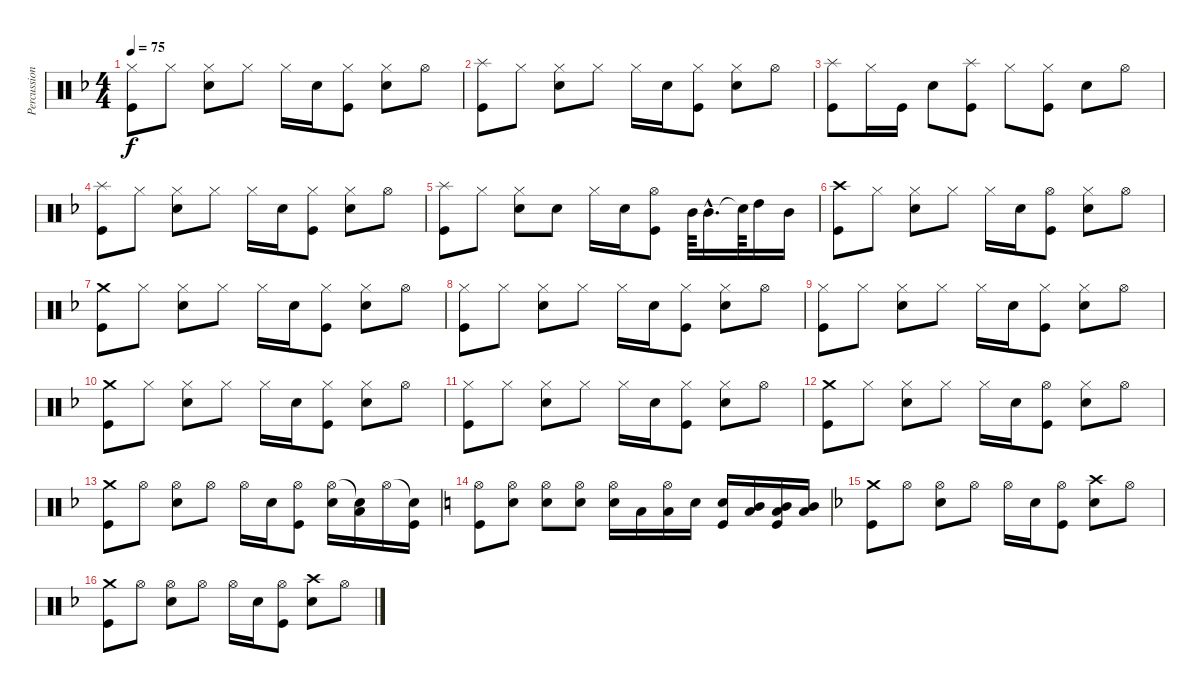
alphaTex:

\track ("Percussion" "Percussion") {instrument percussion}
\staff {score}
\articulation defaults
\ts (4 4)
\tempo 75
\clef neutral
\ks f
("Hi-Hat (closed)" "Kick (hit)").8{dy f} "Hi-Hat (closed)".8 ("Hi-Hat (closed)" "Electric Snare (hit)").8 "Hi-Hat (closed)".8 "Hi-Hat (closed)".16 "Electric Snare (hit)".16 ("Hi-Hat (closed)" "Kick (hit)").8 ("Hi-Hat (closed)" "Electric Snare (hit)").8 "Hi-Hat (open)".8 |
("Splash (hit)" "Kick (hit)").8 "Hi-Hat (closed)".8 ("Hi-Hat (closed)" "Electric Snare (hit)").8 "Hi-Hat (closed)".8 "Hi-Hat (closed)".16 "Electric Snare (hit)".16 ("Hi-Hat (closed)" "Kick (hit)").8 ("Hi-Hat (closed)" "Electric Snare (hit)").8 "Hi-Hat (open)".8 |
("Splash (hit)" "Kick (hit)").8 "Hi-Hat (closed)".16 "Kick (hit)".16 "Electric Snare (hit)".8 ("Splash (hit)" "Kick (hit)").8 "Hi-Hat (closed)".8 ("Hi-Hat (closed)" "Kick (hit)").8 "Electric Snare (hit)".8 "Hi-Hat (open)".8 |
("Splash (hit)" "Kick (hit)").8 "Hi-Hat (closed)".8 ("Hi-Hat (closed)" "Electric Snare (hit)").8 "Hi-Hat (closed)".8 "Hi-Hat (closed)".16 "Electric Snare (hit)".16 ("Hi-Hat (closed)" "Kick (hit)").8 ("Hi-Hat (closed)" "Electric Snare (hit)").8 "Hi-Hat (open)".8 |
("Splash (hit)" "Kick (hit)").8 "Hi-Hat (closed)".8 ("Hi-Hat (closed)" "Electric Snare (hit)").8 "Electric Snare (hit)".8 "Hi-Hat (closed)".16 "Electric Snare (hit)".16 ("Hi-Hat (open)" "Kick (hit)").8 "Mid Tom (hit)".64 "Mid Tom (hit)"{hac}.16{d} "Snare (hit)"{t}.64 "High Tom (hit)".16 "Mid Tom (hit)".16 |
("Crash high (hit)" "Kick (hit)").8 "Hi-Hat (closed)".8 ("Hi-Hat (closed)" "Electric Snare (hit)").8 "Hi-Hat (closed)".8 "Hi-Hat (closed)".16 "Electric Snare (hit)".16 ("Hi-Hat (open)" "Kick (hit)").8 ("Hi-Hat (closed)" "Electric Snare (hit)").8 "Hi-Hat (open)".8 |
("Crash medium (hit)" "Kick (hit)").8 "Hi-Hat (closed)".8 ("Hi-Hat (closed)" "Electric Snare (hit)").8 "Hi-Hat (closed)".8 "Hi-Hat (closed)".16 "Electric Snare (hit)".16 ("Hi-Hat (closed)" "Kick (hit)").8 ("Hi-Hat (closed)" "Electric Snare (hit)").8 "Hi-Hat (open)".8 |
("Hi-Hat (closed)" "Kick (hit)").8 "Hi-Hat (closed)".8 ("Hi-Hat (closed)" "Electric Snare (hit)").8 "Hi-Hat (closed)".8 "Hi-Hat (closed)".16 "Electric Snare (hit)".16 ("Hi-Hat (closed)" "Kick (hit)").8 ("Hi-Hat (closed)" "Electric Snare (hit)").8 "Hi-Hat (open)".8 |
("Hi-Hat (closed)" "Kick (hit)").8 "Hi-Hat (closed)".8 ("Hi-Hat (closed)" "Electric Snare (hit)").8 "Hi-Hat (closed)".8 "Hi-Hat (closed)".16 "Electric Snare (hit)".16 ("Hi-Hat (closed)" "Kick (hit)").8 ("Hi-Hat (closed)" "Electric Snare (hit)").8 "Hi-Hat (open)".8 |
("Crash medium (hit)" "Kick (hit)").8 "Hi-Hat (closed)".8 ("Hi-Hat (closed)" "Electric Snare (hit)").8 "Hi-Hat (closed)".8 "Hi-Hat (closed)".16 "Electric Snare (hit)".16 ("Hi-Hat (closed)" "Kick (hit)").8 ("Hi-Hat (closed)" "Electric Snare (hit)").8 "Hi-Hat (open)".8 |
("Hi-Hat (closed)" "Kick (hit)").8 "Hi-Hat (closed)".8 ("Hi-Hat (closed)" "Electric Snare (hit)").8 "Hi-Hat (closed)".8 "Hi-Hat (closed)".16 "Electric Snare (hit)".16 ("Hi-Hat (closed)" "Kick (hit)").8 ("Hi-Hat (closed)" "Electric Snare (hit)").8 "Hi-Hat (open)".8 |
("Crash medium (hit)" "Kick (hit)").8 "Hi-Hat (closed)".8 ("Hi-Hat (closed)" "Electric Snare (hit)").8 "Hi-Hat (closed)".8 "Hi-Hat (closed)".16 "Electric Snare (hit)".16 ("Hi-Hat (open)" "Kick (hit)").8 ("Hi-Hat (closed)" "Electric Snare (hit)").8 "Hi-Hat (open)".8 |
("Crash medium (hit)" "Kick (hit)").8 "Hi-Hat (open)".8 ("Hi-Hat (open)" "Electric Snare (hit)").8 "Hi-Hat (open)".8 "Hi-Hat (open)".16 "Electric Snare (hit)".16 ("Hi-Hat (open)" "Kick (hit)").8 ("Hi-Hat (open)" "Electric Snare (hit)").16 ("Snare (hit)"{t} "Low Tom (hit)").16 "Hi-Hat (open)".16 ("Snare (hit)"{t} "Kick (hit)").16 |
\ks c
("Hi-Hat (open)" "Kick (hit)").8 ("Hi-Hat (open)" "Electric Snare (hit)").8 ("Hi-Hat (open)" "Electric Snare (hit)").8 ("Hi-Hat (open)" "Electric Snare (hit)").8 ("Hi-Hat (open)" "Electric Snare (hit)").16 "Low Tom (hit)".16 ("Hi-Hat (open)" "Low Tom (hit)").16 "Electric Snare (hit)".16 ("Electric Snare (hit)" "Kick (hit)").16 ("Mid Tom (hit)" "Low Tom (hit)").16 ("Mid Tom (hit)" "Low Tom (hit)" "Kick (hit)").16 ("Mid Tom (hit)" "Low Tom (hit)").16 |
\ks f
("Crash medium (hit)" "Kick (hit)").8 "Hi-Hat (open)".8 ("Hi-Hat (open)" "Electric Snare (hit)").8 "Hi-Hat (open)".8 "Hi-Hat (open)".16 "Electric Snare (hit)".16 ("Hi-Hat (open)" "Kick (hit)").8 ("Crash high (hit)" "Electric Snare (hit)").8 "Hi-Hat (open)".8 |
("Crash medium (hit)" "Kick (hit)").8 "Hi-Hat (open)".8 ("Hi-Hat (open)" "Electric Snare (hit)").8 "Hi-Hat (open)".8 "Hi-Hat (open)".16 "Electric Snare (hit)".16 ("Hi-Hat (open)" "Kick (hit)").8 ("Crash high (hit)" "Electric Snare (hit)").8 "Hi-Hat (open)".8
